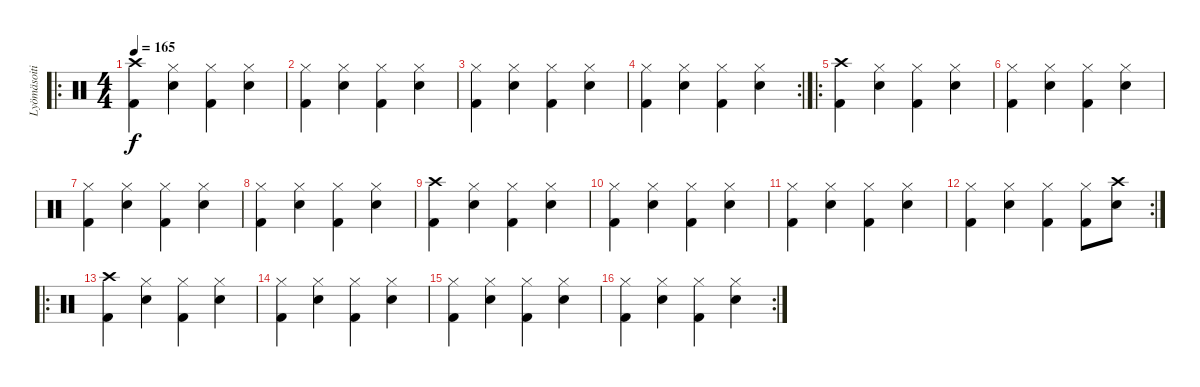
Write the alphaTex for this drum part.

\track ("Lyömäsoitin" "Lyömäsoiti") {instrument percussion}
\staff {score}
\articulation defaults
\ro
\ts (4 4)
\tempo 165
\clef neutral
\ks c
("Crash high (hit)" "Kick (hit) 2").4{dy f} ("Hi-Hat (closed)" "Snare (hit) 2").4 ("Hi-Hat (closed)" "Kick (hit) 2").4 ("Hi-Hat (closed)" "Snare (hit) 2").4 |
("Hi-Hat (closed)" "Kick (hit) 2").4 ("Hi-Hat (closed)" "Snare (hit) 2").4 ("Hi-Hat (closed)" "Kick (hit) 2").4 ("Hi-Hat (closed)" "Snare (hit) 2").4 |
("Hi-Hat (closed)" "Kick (hit) 2").4 ("Hi-Hat (closed)" "Snare (hit) 2").4 ("Hi-Hat (closed)" "Kick (hit) 2").4 ("Hi-Hat (closed)" "Snare (hit) 2").4 |
\rc 2
("Hi-Hat (closed)" "Kick (hit) 2").4 ("Hi-Hat (closed)" "Snare (hit) 2").4 ("Hi-Hat (closed)" "Kick (hit) 2").4 ("Hi-Hat (closed)" "Snare (hit) 2").4 |
\ro
("Crash high (hit)" "Kick (hit) 2").4 ("Hi-Hat (closed)" "Snare (hit) 2").4 ("Hi-Hat (closed)" "Kick (hit) 2").4 ("Hi-Hat (closed)" "Snare (hit) 2").4 |
("Hi-Hat (closed)" "Kick (hit) 2").4 ("Hi-Hat (closed)" "Snare (hit) 2").4 ("Hi-Hat (closed)" "Kick (hit) 2").4 ("Hi-Hat (closed)" "Snare (hit) 2").4 |
("Hi-Hat (closed)" "Kick (hit) 2").4 ("Hi-Hat (closed)" "Snare (hit) 2").4 ("Hi-Hat (closed)" "Kick (hit) 2").4 ("Hi-Hat (closed)" "Snare (hit) 2").4 |
("Hi-Hat (closed)" "Kick (hit) 2").4 ("Hi-Hat (closed)" "Snare (hit) 2").4 ("Hi-Hat (closed)" "Kick (hit) 2").4 ("Hi-Hat (closed)" "Snare (hit) 2").4 |
("Crash high (hit)" "Kick (hit) 2").4 ("Hi-Hat (closed)" "Snare (hit) 2").4 ("Hi-Hat (closed)" "Kick (hit) 2").4 ("Hi-Hat (closed)" "Snare (hit) 2").4 |
("Hi-Hat (closed)" "Kick (hit) 2").4 ("Hi-Hat (closed)" "Snare (hit) 2").4 ("Hi-Hat (closed)" "Kick (hit) 2").4 ("Hi-Hat (closed)" "Snare (hit) 2").4 |
("Hi-Hat (closed)" "Kick (hit) 2").4 ("Hi-Hat (closed)" "Snare (hit) 2").4 ("Hi-Hat (closed)" "Kick (hit) 2").4 ("Hi-Hat (closed)" "Snare (hit) 2").4 |
\rc 2
("Hi-Hat (closed)" "Kick (hit) 2").4 ("Hi-Hat (closed)" "Snare (hit) 2").4 ("Hi-Hat (closed)" "Kick (hit) 2").4 ("Hi-Hat (closed)" "Kick (hit) 2").8 ("Crash high (hit)" "Snare (hit) 2").8 |
\ro
("Crash high (hit)" "Kick (hit) 2").4 ("Hi-Hat (closed)" "Snare (hit) 2").4 ("Hi-Hat (closed)" "Kick (hit) 2").4 ("Hi-Hat (closed)" "Snare (hit) 2").4 |
("Hi-Hat (closed)" "Kick (hit) 2").4 ("Hi-Hat (closed)" "Snare (hit) 2").4 ("Hi-Hat (closed)" "Kick (hit) 2").4 ("Hi-Hat (closed)" "Snare (hit) 2").4 |
("Hi-Hat (closed)" "Kick (hit) 2").4 ("Hi-Hat (closed)" "Snare (hit) 2").4 ("Hi-Hat (closed)" "Kick (hit) 2").4 ("Hi-Hat (closed)" "Snare (hit) 2").4 |
\rc 2
("Hi-Hat (closed)" "Kick (hit) 2").4 ("Hi-Hat (closed)" "Snare (hit) 2").4 ("Hi-Hat (closed)" "Kick (hit) 2").4 ("Hi-Hat (closed)" "Snare (hit) 2").4
